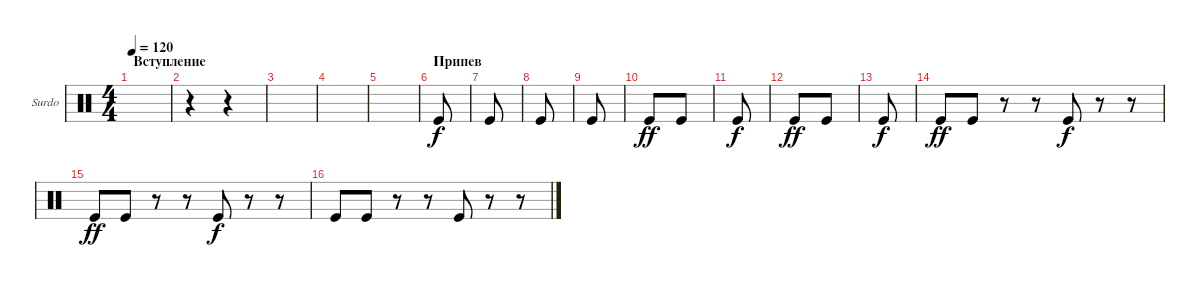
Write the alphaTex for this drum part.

\defaultSystemsLayout 4
\bracketExtendMode groupsimilarinstruments
\firstSystemTrackNameOrientation horizontal
\otherSystemsTrackNameOrientation horizontal
\track ("Surdo" "Surdo") {instrument percussion}
\staff {score}
\articulation defaults
\ts (4 4)
\section ("" "Вступление")
\tempo 120
\clef neutral
\ks c
|
r.4 r.4 |
|
|
|
\section ("" "Припев")
"Kick (hit)".8 |
"Kick (hit)".8 |
"Kick (hit)".8 |
"Kick (hit)".8 |
"Kick (hit)".8{dy ff} "Kick (hit)".8 |
"Kick (hit)".8{dy f} |
"Kick (hit)".8{dy ff} "Kick (hit)".8 |
"Kick (hit)".8{dy f} |
"Kick (hit)".8{dy ff} "Kick (hit)".8 r.8 r.8 "Kick (hit)".8{dy f} r.8 r.8 |
"Kick (hit)".8{dy ff} "Kick (hit)".8 r.8 r.8 "Kick (hit)".8{dy f} r.8 r.8 |
"Kick (hit)".8 "Kick (hit)".8 r.8 r.8 "Kick (hit)".8 r.8 r.8
